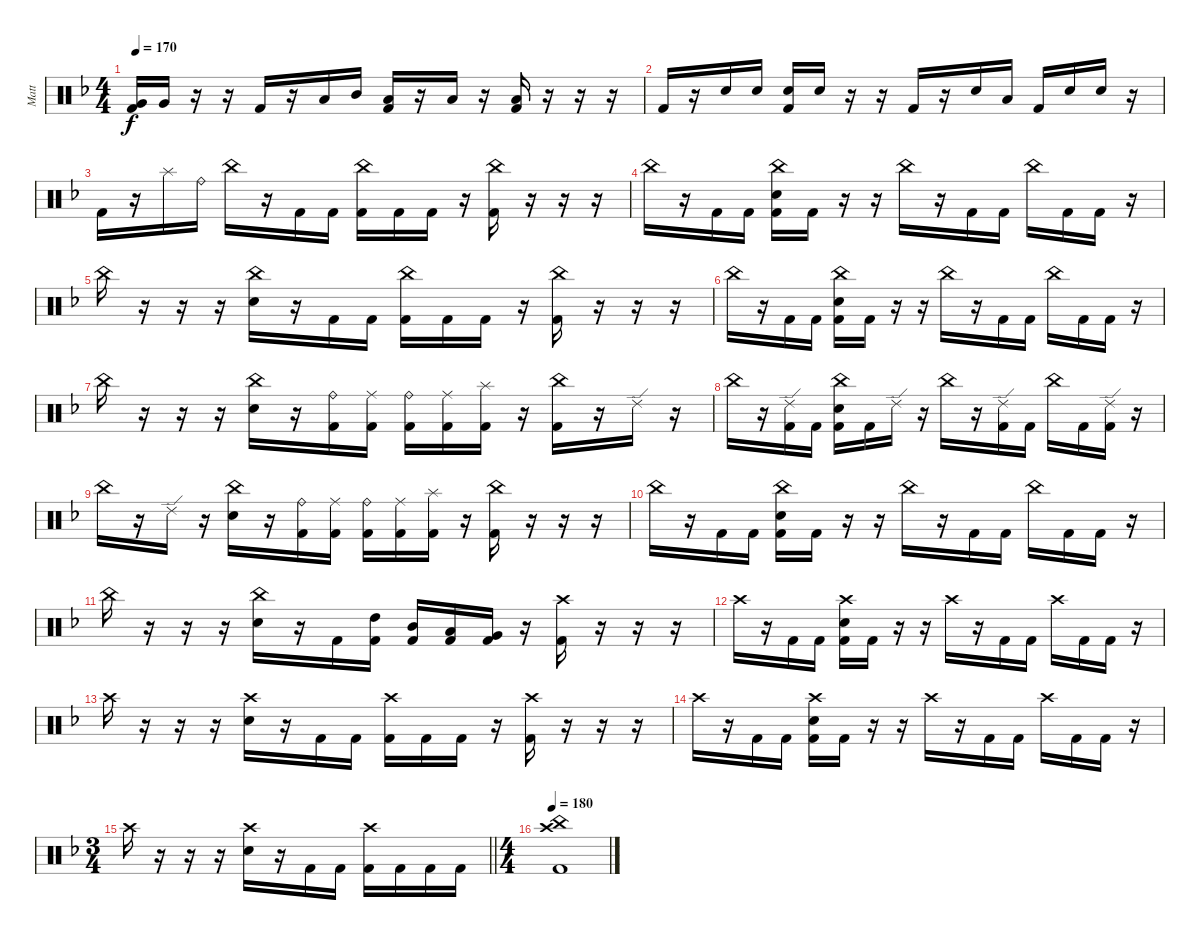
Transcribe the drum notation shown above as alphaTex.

\track ("Matt" "Matt") {instrument percussion}
\staff {score}
\articulation defaults
\ts (4 4)
\tempo 170
\clef neutral
\ks f
("Very Low Tom (hit)" "Kick (hit) 2").16{dy f} "Very Low Tom (hit)".16 r.16 r.16 "Kick (hit) 2".16 r.16 "Low Tom (hit)".16 "Mid Tom (hit)".16 ("Low Tom (hit)" "Kick (hit) 2").16 r.16 "Low Tom (hit)".16 r.16 ("Low Tom (hit)" "Kick (hit) 2").16 r.16 r.16 r.16 |
"Kick (hit) 2".16 r.16 "Electric Snare (hit)".16 "Electric Snare (hit)".16 ("Electric Snare (hit)" "Kick (hit) 2").16 "Electric Snare (hit)".16 r.16 r.16 "Kick (hit) 2".16 r.16 "Electric Snare (hit)".16 "Low Tom (hit)".16 "Kick (hit) 2".16 "Electric Snare (hit)".16 "Electric Snare (hit)".16 r.16 |
"Kick (hit) 2".16 r.16 "Splash (hit)".16 "Ride (bell)".16 "China (hit)".16 r.16 "Kick (hit) 2".16 "Kick (hit) 2".16 ("China (hit)" "Kick (hit) 2").16 "Kick (hit) 2".16 "Kick (hit) 2".16 r.16 ("China (hit)" "Kick (hit) 2").16 r.16 r.16 r.16 |
"China (hit)".16 r.16 "Kick (hit) 2".16 "Kick (hit) 2".16 ("China (hit)" "Electric Snare (hit)" "Kick (hit) 2").16 "Kick (hit) 2".16 r.16 r.16 "China (hit)".16 r.16 "Kick (hit) 2".16 "Kick (hit) 2".16 "China (hit)".16 "Kick (hit) 2".16 "Kick (hit) 2".16 r.16 |
"China (hit)".16 r.16 r.16 r.16 ("China (hit)" "Electric Snare (hit)").16 r.16 "Kick (hit) 2".16 "Kick (hit) 2".16 ("China (hit)" "Kick (hit) 2").16 "Kick (hit) 2".16 "Kick (hit) 2".16 r.16 ("China (hit)" "Kick (hit) 2").16 r.16 r.16 r.16 |
"China (hit)".16 r.16 "Kick (hit) 2".16 "Kick (hit) 2".16 ("China (hit)" "Electric Snare (hit)" "Kick (hit) 2").16 "Kick (hit) 2".16 r.16 r.16 "China (hit)".16 r.16 "Kick (hit) 2".16 "Kick (hit) 2".16 "China (hit)".16 "Kick (hit) 2".16 "Kick (hit) 2".16 r.16 |
"China (hit)".16 r.16 r.16 r.16 ("China (hit)" "Electric Snare (hit)").16 r.16 ("Ride (bell)" "Kick (hit) 2").16 ("Ride (middle)" "Kick (hit) 2").16 ("Ride (bell)" "Kick (hit) 2").16 ("Ride (middle)" "Kick (hit) 2").16 ("Splash (hit)" "Kick (hit) 2").16 r.16 ("China (hit)" "Kick (hit) 2").16 r.16 "Ride (edge) 2".16 r.16 |
"China (hit)".16 r.16 ("Ride (edge) 2" "Kick (hit) 2").16 "Kick (hit) 2".16 ("China (hit)" "Electric Snare (hit)" "Kick (hit) 2").16 "Kick (hit) 2".16 "Ride (edge) 2".16 r.16 "China (hit)".16 r.16 ("Ride (edge) 2" "Kick (hit) 2").16 "Kick (hit) 2".16 "China (hit)".16 "Kick (hit) 2".16 ("Ride (edge) 2" "Kick (hit) 2").16 r.16 |
"China (hit)".16 r.16 "Ride (edge) 2".16 r.16 ("China (hit)" "Electric Snare (hit)").16 r.16 ("Ride (bell)" "Kick (hit) 2").16 ("Ride (middle)" "Kick (hit) 2").16 ("Ride (bell)" "Kick (hit) 2").16 ("Ride (middle)" "Kick (hit) 2").16 ("Splash (hit)" "Kick (hit) 2").16 r.16 ("China (hit)" "Kick (hit) 2").16 r.16 r.16 r.16 |
"China (hit)".16 r.16 "Kick (hit) 2".16 "Kick (hit) 2".16 ("China (hit)" "Electric Snare (hit)" "Kick (hit) 2").16 "Kick (hit) 2".16 r.16 r.16 "China (hit)".16 r.16 "Kick (hit) 2".16 "Kick (hit) 2".16 "China (hit)".16 "Kick (hit) 2".16 "Kick (hit) 2".16 r.16 |
"China (hit)".16 r.16 r.16 r.16 ("China (hit)" "Electric Snare (hit)").16 r.16 "Kick (hit) 2".16 ("High Tom (hit)" "Kick (hit) 2").16 ("Mid Tom (hit)" "Kick (hit) 2").16 ("Low Tom (hit)" "Kick (hit) 2").16 ("Very Low Tom (hit)" "Kick (hit) 2").16 r.16 ("Crash high (hit)" "Kick (hit) 2").16 r.16 r.16 r.16 |
"Crash high (hit)".16 r.16 "Kick (hit) 2".16 "Kick (hit) 2".16 ("Crash high (hit)" "Electric Snare (hit)" "Kick (hit) 2").16 "Kick (hit) 2".16 r.16 r.16 "Crash high (hit)".16 r.16 "Kick (hit) 2".16 "Kick (hit) 2".16 "Crash high (hit)".16 "Kick (hit) 2".16 "Kick (hit) 2".16 r.16 |
"Crash high (hit)".16 r.16 r.16 r.16 ("Crash high (hit)" "Electric Snare (hit)").16 r.16 "Kick (hit) 2".16 "Kick (hit) 2".16 ("Crash high (hit)" "Kick (hit) 2").16 "Kick (hit) 2".16 "Kick (hit) 2".16 r.16 ("Crash high (hit)" "Kick (hit) 2").16 r.16 r.16 r.16 |
"Crash high (hit)".16 r.16 "Kick (hit) 2".16 "Kick (hit) 2".16 ("Crash high (hit)" "Electric Snare (hit)" "Kick (hit) 2").16 "Kick (hit) 2".16 r.16 r.16 "Crash high (hit)".16 r.16 "Kick (hit) 2".16 "Kick (hit) 2".16 "Crash high (hit)".16 "Kick (hit) 2".16 "Kick (hit) 2".16 r.16 |
\ts (3 4)
\barLineRight lightlight "Crash high (hit)".16
r.16 r.16 r.16 ("Crash high (hit)" "Electric Snare (hit)").16 r.16 "Kick (hit) 2".16 "Kick (hit) 2".16 ("Crash high (hit)" "Kick (hit) 2").16 "Kick (hit) 2".16 "Kick (hit) 2".16 "Kick (hit) 2".16 |
\ts (4 4)
\tempo 180
("Crash high (hit)" "China (hit)" "Kick (hit) 2").1
